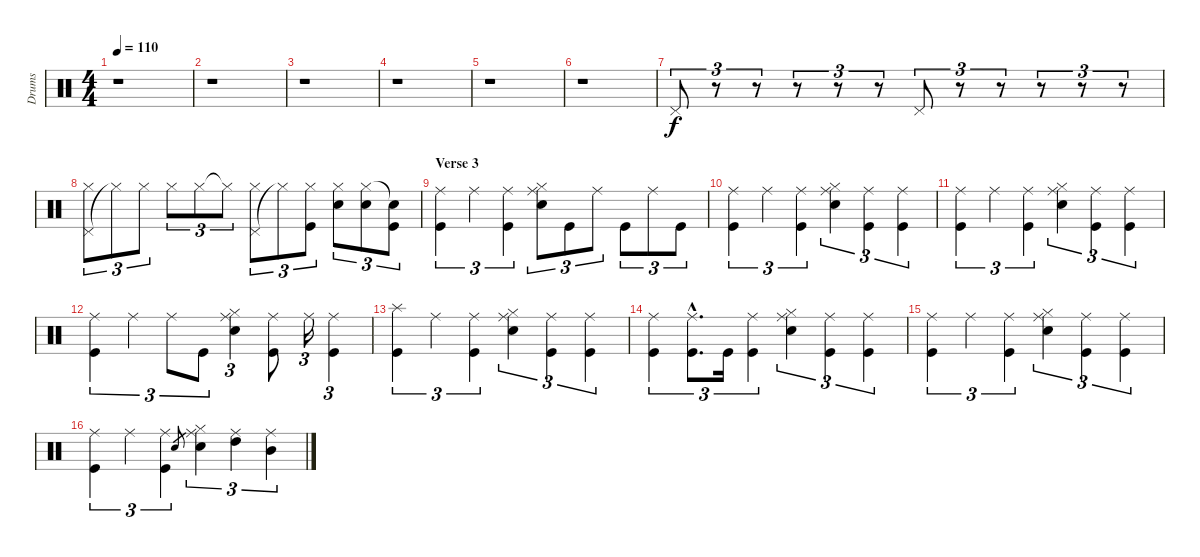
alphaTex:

\track ("Drums" "Drums") {instrument percussion}
\staff {score}
\articulation defaults
\ts (4 4)
\tempo 110
\clef neutral
\ks c
r.1{dy f} |
r.1 |
r.1 |
r.1 |
r.1 |
r.1 |
"Pedal Hi-Hat (hit)".8{tu (3 2)} r.8{tu (3 2)} r.8{tu (3 2)} r.8{tu (3 2)} r.8{tu (3 2)} r.8{tu (3 2)} "Pedal Hi-Hat (hit)".8{tu (3 2)} r.8{tu (3 2)} r.8{tu (3 2)} r.8{tu (3 2)} r.8{tu (3 2)} r.8{tu (3 2)} |
("Pedal Hi-Hat (hit)" "Hi-Hat (closed)").8{tu (3 2)} "Hi-Hat (closed)"{t}.8{tu (3 2)} "Hi-Hat (closed)".8{tu (3 2)} "Hi-Hat (closed)".8{tu (3 2)} "Hi-Hat (closed)".8{tu (3 2)} "Hi-Hat (closed)"{t}.8{tu (3 2)} ("Pedal Hi-Hat (hit)" "Hi-Hat (closed)").8{tu (3 2)} "Hi-Hat (closed)"{t}.8{tu (3 2)} ("Hi-Hat (closed)" "Kick (hit)").8{tu (3 2)} ("Hi-Hat (closed)" "Snare (hit) 2").8{tu (3 2)} ("Hi-Hat (closed)" "Snare (hit) 2").8{tu (3 2)} ("Snare (hit)"{t} "Kick (hit)").8{tu (3 2)} |
\section ("" "Verse 3")
("Ride (middle)" "Kick (hit)").4{tu (3 2)} "Ride (middle)".4{tu (3 2)} ("Ride (middle)" "Kick (hit)").4{tu (3 2)} ("Ride (middle)" "Hi-Hat (closed)" "Electric Snare (hit)").8{tu (3 2)} "Kick (hit)".8{tu (3 2)} "Ride (middle)".8{tu (3 2)} "Kick (hit)".8{tu (3 2)} "Ride (middle)".8{tu (3 2)} "Kick (hit)".8{tu (3 2)} |
("Ride (middle)" "Kick (hit)").4{tu (3 2)} "Ride (middle)".4{tu (3 2)} ("Ride (middle)" "Kick (hit)").4{tu (3 2)} ("Ride (middle)" "Hi-Hat (closed)" "Electric Snare (hit)").4{tu (3 2)} ("Ride (middle)" "Kick (hit)").4{tu (3 2)} ("Ride (middle)" "Kick (hit)").4{tu (3 2)} |
("Ride (middle)" "Kick (hit)").4{tu (3 2)} "Ride (middle)".4{tu (3 2)} ("Ride (middle)" "Kick (hit)").4{tu (3 2)} ("Ride (middle)" "Hi-Hat (closed)" "Electric Snare (hit)").4{tu (3 2)} ("Ride (middle)" "Kick (hit)").4{tu (3 2)} ("Ride (middle)" "Kick (hit)").4{tu (3 2)} |
("Ride (middle)" "Kick (hit)").4{tu (3 2)} "Ride (middle)".4{tu (3 2)} "Ride (middle)".8{tu (3 2)} "Kick (hit)".8{tu (3 2)} ("Ride (middle)" "Hi-Hat (closed)" "Electric Snare (hit)").4{tu (3 2)} ("Ride (middle)" "Kick (hit)").8 "Ride (middle)".16{tu (3 2)} ("Ride (middle)" "Kick (hit)").4{tu (3 2)} |
("Splash (hit)" "Kick (hit)").4{tu (3 2)} "Ride (middle)".4{tu (3 2)} ("Ride (middle)" "Kick (hit)").4{tu (3 2)} ("Ride (middle)" "Hi-Hat (closed)" "Electric Snare (hit)").4{tu (3 2)} ("Ride (middle)" "Kick (hit)").4{tu (3 2)} ("Ride (middle)" "Kick (hit)").4{tu (3 2)} |
("Ride (middle)" "Kick (hit)").4{tu (3 2)} ("Ride (middle)"{hac} "Kick (hit)"{hac}).8{d tu (3 2)} "Kick (hit)".16{tu (3 2)} ("Ride (middle)" "Kick (hit)").4{tu (3 2)} ("Ride (middle)" "Hi-Hat (closed)" "Electric Snare (hit)").4{tu (3 2)} ("Ride (middle)" "Kick (hit)").4{tu (3 2)} ("Ride (middle)" "Kick (hit)").4{tu (3 2)} |
("Ride (middle)" "Kick (hit)").4{tu (3 2)} "Ride (middle)".4{tu (3 2)} ("Ride (middle)" "Kick (hit)").4{tu (3 2)} ("Ride (middle)" "Hi-Hat (closed)" "Electric Snare (hit)").4{tu (3 2)} ("Ride (middle)" "Kick (hit)").4{tu (3 2)} ("Ride (middle)" "Kick (hit)").4{tu (3 2)} |
("Ride (middle)" "Kick (hit)").4{tu (3 2)} "Ride (middle)".4{tu (3 2)} ("Ride (middle)" "Kick (hit)").4{tu (3 2)} "Electric Snare (hit)".8{gr} ("Ride (middle)" "Hi-Hat (closed)" "Electric Snare (hit)").4{tu (3 2)} ("Ride (middle)" "High Tom (hit)").4{tu (3 2)} ("Ride (middle)" "Mid Tom (hit)").4{tu (3 2)}
